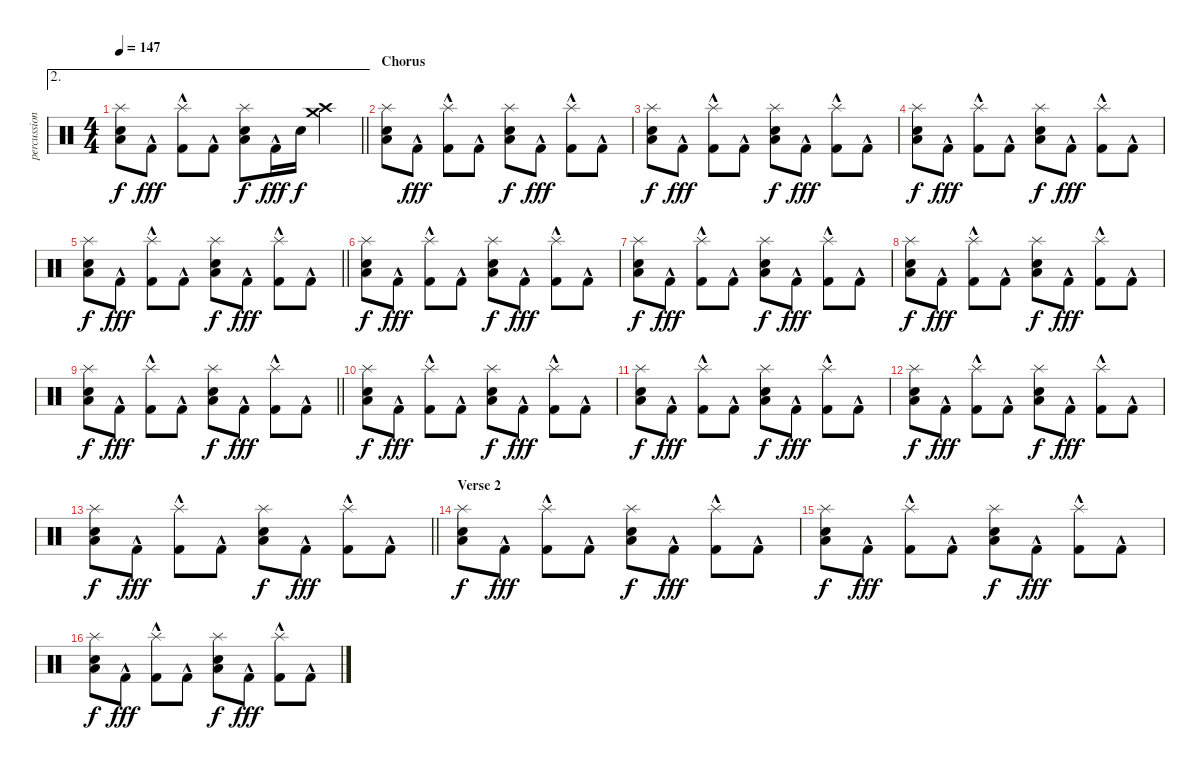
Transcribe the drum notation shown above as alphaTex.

\track ("percussion" "percussion") {instrument percussion}
\staff {score}
\articulation defaults
\ae 2
\ts (4 4)
\tempo 147
\clef neutral
\barLineRight lightlight
\ks c
("Electric Snare (hit)" "Low Floor Tom (hit)" "Splash (hit)").8{dy f} "Kick (hit) 2"{hac}.8{dy fff} ("Kick (hit) 2"{hac} "Splash (hit)").8 "Kick (hit) 2"{hac}.8 ("Electric Snare (hit)" "Low Floor Tom (hit)" "Splash (hit)").8{dy f} "Kick (hit) 2"{hac}.16{dy fff} "Electric Snare (hit)".16{dy f} ("Crash medium (hit)" "Crash high (hit)").4 |
\section ("" "Chorus")
("Electric Snare (hit)" "Low Floor Tom (hit)" "Splash (hit)").8 "Kick (hit) 2"{hac}.8{dy fff} ("Kick (hit) 2"{hac} "Splash (hit)").8 "Kick (hit) 2"{hac}.8 ("Electric Snare (hit)" "Low Floor Tom (hit)" "Splash (hit)").8{dy f} "Kick (hit) 2"{hac}.8{dy fff} ("Kick (hit) 2"{hac} "Splash (hit)").8 "Kick (hit) 2"{hac}.8 |
("Electric Snare (hit)" "Low Floor Tom (hit)" "Splash (hit)").8{dy f} "Kick (hit) 2"{hac}.8{dy fff} ("Kick (hit) 2"{hac} "Splash (hit)").8 "Kick (hit) 2"{hac}.8 ("Electric Snare (hit)" "Low Floor Tom (hit)" "Splash (hit)").8{dy f} "Kick (hit) 2"{hac}.8{dy fff} ("Kick (hit) 2"{hac} "Splash (hit)").8 "Kick (hit) 2"{hac}.8 |
("Electric Snare (hit)" "Low Floor Tom (hit)" "Splash (hit)").8{dy f} "Kick (hit) 2"{hac}.8{dy fff} ("Kick (hit) 2"{hac} "Splash (hit)").8 "Kick (hit) 2"{hac}.8 ("Electric Snare (hit)" "Low Floor Tom (hit)" "Splash (hit)").8{dy f} "Kick (hit) 2"{hac}.8{dy fff} ("Kick (hit) 2"{hac} "Splash (hit)").8 "Kick (hit) 2"{hac}.8 |
\barLineRight lightlight
("Electric Snare (hit)" "Low Floor Tom (hit)" "Splash (hit)").8{dy f} "Kick (hit) 2"{hac}.8{dy fff} ("Kick (hit) 2"{hac} "Splash (hit)").8 "Kick (hit) 2"{hac}.8 ("Electric Snare (hit)" "Low Floor Tom (hit)" "Splash (hit)").8{dy f} "Kick (hit) 2"{hac}.8{dy fff} ("Kick (hit) 2"{hac} "Splash (hit)").8 "Kick (hit) 2"{hac}.8 |
("Electric Snare (hit)" "Low Floor Tom (hit)" "Splash (hit)").8{dy f} "Kick (hit) 2"{hac}.8{dy fff} ("Kick (hit) 2"{hac} "Splash (hit)").8 "Kick (hit) 2"{hac}.8 ("Electric Snare (hit)" "Low Floor Tom (hit)" "Splash (hit)").8{dy f} "Kick (hit) 2"{hac}.8{dy fff} ("Kick (hit) 2"{hac} "Splash (hit)").8 "Kick (hit) 2"{hac}.8 |
("Electric Snare (hit)" "Low Floor Tom (hit)" "Splash (hit)").8{dy f} "Kick (hit) 2"{hac}.8{dy fff} ("Kick (hit) 2"{hac} "Splash (hit)").8 "Kick (hit) 2"{hac}.8 ("Electric Snare (hit)" "Low Floor Tom (hit)" "Splash (hit)").8{dy f} "Kick (hit) 2"{hac}.8{dy fff} ("Kick (hit) 2"{hac} "Splash (hit)").8 "Kick (hit) 2"{hac}.8 |
("Electric Snare (hit)" "Low Floor Tom (hit)" "Splash (hit)").8{dy f} "Kick (hit) 2"{hac}.8{dy fff} ("Kick (hit) 2"{hac} "Splash (hit)").8 "Kick (hit) 2"{hac}.8 ("Electric Snare (hit)" "Low Floor Tom (hit)" "Splash (hit)").8{dy f} "Kick (hit) 2"{hac}.8{dy fff} ("Kick (hit) 2"{hac} "Splash (hit)").8 "Kick (hit) 2"{hac}.8 |
\barLineRight lightlight
("Electric Snare (hit)" "Low Floor Tom (hit)" "Splash (hit)").8{dy f} "Kick (hit) 2"{hac}.8{dy fff} ("Kick (hit) 2"{hac} "Splash (hit)").8 "Kick (hit) 2"{hac}.8 ("Electric Snare (hit)" "Low Floor Tom (hit)" "Splash (hit)").8{dy f} "Kick (hit) 2"{hac}.8{dy fff} ("Kick (hit) 2"{hac} "Splash (hit)").8 "Kick (hit) 2"{hac}.8 |
("Electric Snare (hit)" "Low Floor Tom (hit)" "Splash (hit)").8{dy f} "Kick (hit) 2"{hac}.8{dy fff} ("Kick (hit) 2"{hac} "Splash (hit)").8 "Kick (hit) 2"{hac}.8 ("Electric Snare (hit)" "Low Floor Tom (hit)" "Splash (hit)").8{dy f} "Kick (hit) 2"{hac}.8{dy fff} ("Kick (hit) 2"{hac} "Splash (hit)").8 "Kick (hit) 2"{hac}.8 |
("Electric Snare (hit)" "Low Floor Tom (hit)" "Splash (hit)").8{dy f} "Kick (hit) 2"{hac}.8{dy fff} ("Kick (hit) 2"{hac} "Splash (hit)").8 "Kick (hit) 2"{hac}.8 ("Electric Snare (hit)" "Low Floor Tom (hit)" "Splash (hit)").8{dy f} "Kick (hit) 2"{hac}.8{dy fff} ("Kick (hit) 2"{hac} "Splash (hit)").8 "Kick (hit) 2"{hac}.8 |
("Electric Snare (hit)" "Low Floor Tom (hit)" "Splash (hit)").8{dy f} "Kick (hit) 2"{hac}.8{dy fff} ("Kick (hit) 2"{hac} "Splash (hit)").8 "Kick (hit) 2"{hac}.8 ("Electric Snare (hit)" "Low Floor Tom (hit)" "Splash (hit)").8{dy f} "Kick (hit) 2"{hac}.8{dy fff} ("Kick (hit) 2"{hac} "Splash (hit)").8 "Kick (hit) 2"{hac}.8 |
\barLineRight lightlight
("Electric Snare (hit)" "Low Floor Tom (hit)" "Splash (hit)").8{dy f} "Kick (hit) 2"{hac}.8{dy fff} ("Kick (hit) 2"{hac} "Splash (hit)").8 "Kick (hit) 2"{hac}.8 ("Electric Snare (hit)" "Low Floor Tom (hit)" "Splash (hit)").8{dy f} "Kick (hit) 2"{hac}.8{dy fff} ("Kick (hit) 2"{hac} "Splash (hit)").8 "Kick (hit) 2"{hac}.8 |
\section ("" "Verse 2")
("Electric Snare (hit)" "Low Floor Tom (hit)" "Splash (hit)").8{dy f} "Kick (hit) 2"{hac}.8{dy fff} ("Kick (hit) 2"{hac} "Splash (hit)").8 "Kick (hit) 2"{hac}.8 ("Electric Snare (hit)" "Low Floor Tom (hit)" "Splash (hit)").8{dy f} "Kick (hit) 2"{hac}.8{dy fff} ("Kick (hit) 2"{hac} "Splash (hit)").8 "Kick (hit) 2"{hac}.8 |
("Electric Snare (hit)" "Low Floor Tom (hit)" "Splash (hit)").8{dy f} "Kick (hit) 2"{hac}.8{dy fff} ("Kick (hit) 2"{hac} "Splash (hit)").8 "Kick (hit) 2"{hac}.8 ("Electric Snare (hit)" "Low Floor Tom (hit)" "Splash (hit)").8{dy f} "Kick (hit) 2"{hac}.8{dy fff} ("Kick (hit) 2"{hac} "Splash (hit)").8 "Kick (hit) 2"{hac}.8 |
("Electric Snare (hit)" "Low Floor Tom (hit)" "Splash (hit)").8{dy f} "Kick (hit) 2"{hac}.8{dy fff} ("Kick (hit) 2"{hac} "Splash (hit)").8 "Kick (hit) 2"{hac}.8 ("Electric Snare (hit)" "Low Floor Tom (hit)" "Splash (hit)").8{dy f} "Kick (hit) 2"{hac}.8{dy fff} ("Kick (hit) 2"{hac} "Splash (hit)").8 "Kick (hit) 2"{hac}.8
